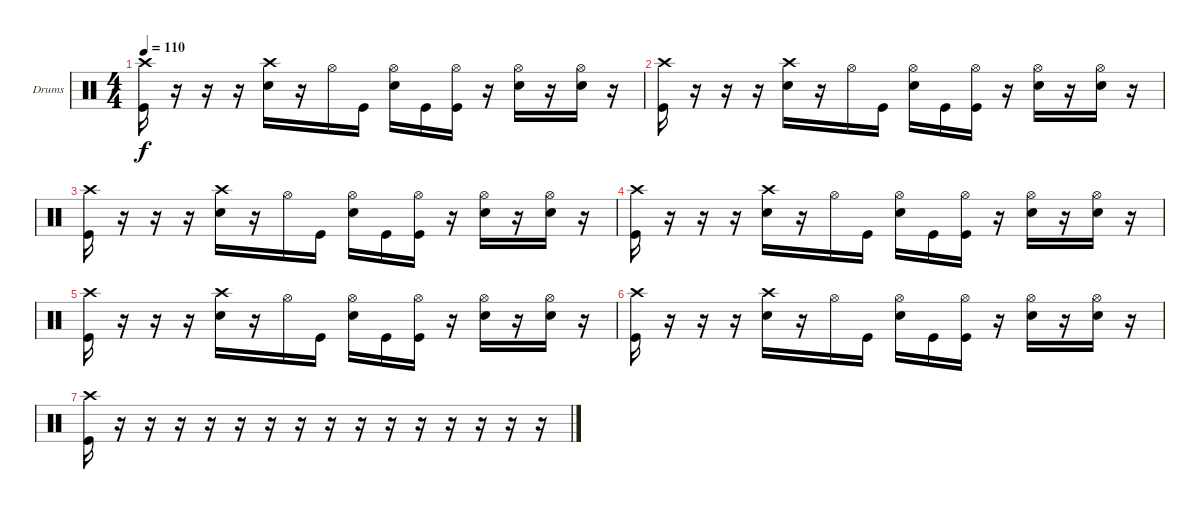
\defaultSystemsLayout 4
\bracketExtendMode groupsimilarinstruments
\firstSystemTrackNameOrientation horizontal
\otherSystemsTrackNameOrientation horizontal
\track ("Drumkit" "Drums") {instrument percussion}
\staff {score}
\articulation defaults
\ts (4 4)
\tempo 110
\clef neutral
\ks c
("Crash high (hit)" "Kick (hit)").16{dy f} r.16 r.16 r.16 ("Crash high (hit)" "Snare (hit) 2").16 r.16 "Hi-Hat (open)".16 "Kick (hit)".16 ("Hi-Hat (open)" "Snare (hit) 2").16 "Kick (hit)".16 ("Hi-Hat (open)" "Kick (hit)").16 r.16 ("Hi-Hat (open)" "Snare (hit) 2").16 r.16 ("Hi-Hat (open)" "Snare (hit) 2").16 r.16 |
("Crash high (hit)" "Kick (hit)").16 r.16 r.16 r.16 ("Crash high (hit)" "Snare (hit) 2").16 r.16 "Hi-Hat (open)".16 "Kick (hit)".16 ("Hi-Hat (open)" "Snare (hit) 2").16 "Kick (hit)".16 ("Hi-Hat (open)" "Kick (hit)").16 r.16 ("Hi-Hat (open)" "Snare (hit) 2").16 r.16 ("Hi-Hat (open)" "Snare (hit) 2").16 r.16 |
("Crash high (hit)" "Kick (hit)").16 r.16 r.16 r.16 ("Crash high (hit)" "Snare (hit) 2").16 r.16 "Hi-Hat (open)".16 "Kick (hit)".16 ("Hi-Hat (open)" "Snare (hit) 2").16 "Kick (hit)".16 ("Hi-Hat (open)" "Kick (hit)").16 r.16 ("Hi-Hat (open)" "Snare (hit) 2").16 r.16 ("Hi-Hat (open)" "Snare (hit) 2").16 r.16 |
("Crash high (hit)" "Kick (hit)").16 r.16 r.16 r.16 ("Crash high (hit)" "Snare (hit) 2").16 r.16 "Hi-Hat (open)".16 "Kick (hit)".16 ("Hi-Hat (open)" "Snare (hit) 2").16 "Kick (hit)".16 ("Hi-Hat (open)" "Kick (hit)").16 r.16 ("Hi-Hat (open)" "Snare (hit) 2").16 r.16 ("Hi-Hat (open)" "Snare (hit) 2").16 r.16 |
("Crash high (hit)" "Kick (hit)").16 r.16 r.16 r.16 ("Crash high (hit)" "Snare (hit) 2").16 r.16 "Hi-Hat (open)".16 "Kick (hit)".16 ("Hi-Hat (open)" "Snare (hit) 2").16 "Kick (hit)".16 ("Hi-Hat (open)" "Kick (hit)").16 r.16 ("Hi-Hat (open)" "Snare (hit) 2").16 r.16 ("Hi-Hat (open)" "Snare (hit) 2").16 r.16 |
("Crash high (hit)" "Kick (hit)").16 r.16 r.16 r.16 ("Crash high (hit)" "Snare (hit) 2").16 r.16 "Hi-Hat (open)".16 "Kick (hit)".16 ("Hi-Hat (open)" "Snare (hit) 2").16 "Kick (hit)".16 ("Hi-Hat (open)" "Kick (hit)").16 r.16 ("Hi-Hat (open)" "Snare (hit) 2").16 r.16 ("Hi-Hat (open)" "Snare (hit) 2").16 r.16 |
("Crash high (hit)" "Kick (hit)").16 r.16 r.16 r.16 r.16 r.16 r.16 r.16 r.16 r.16 r.16 r.16 r.16 r.16 r.16 r.16
